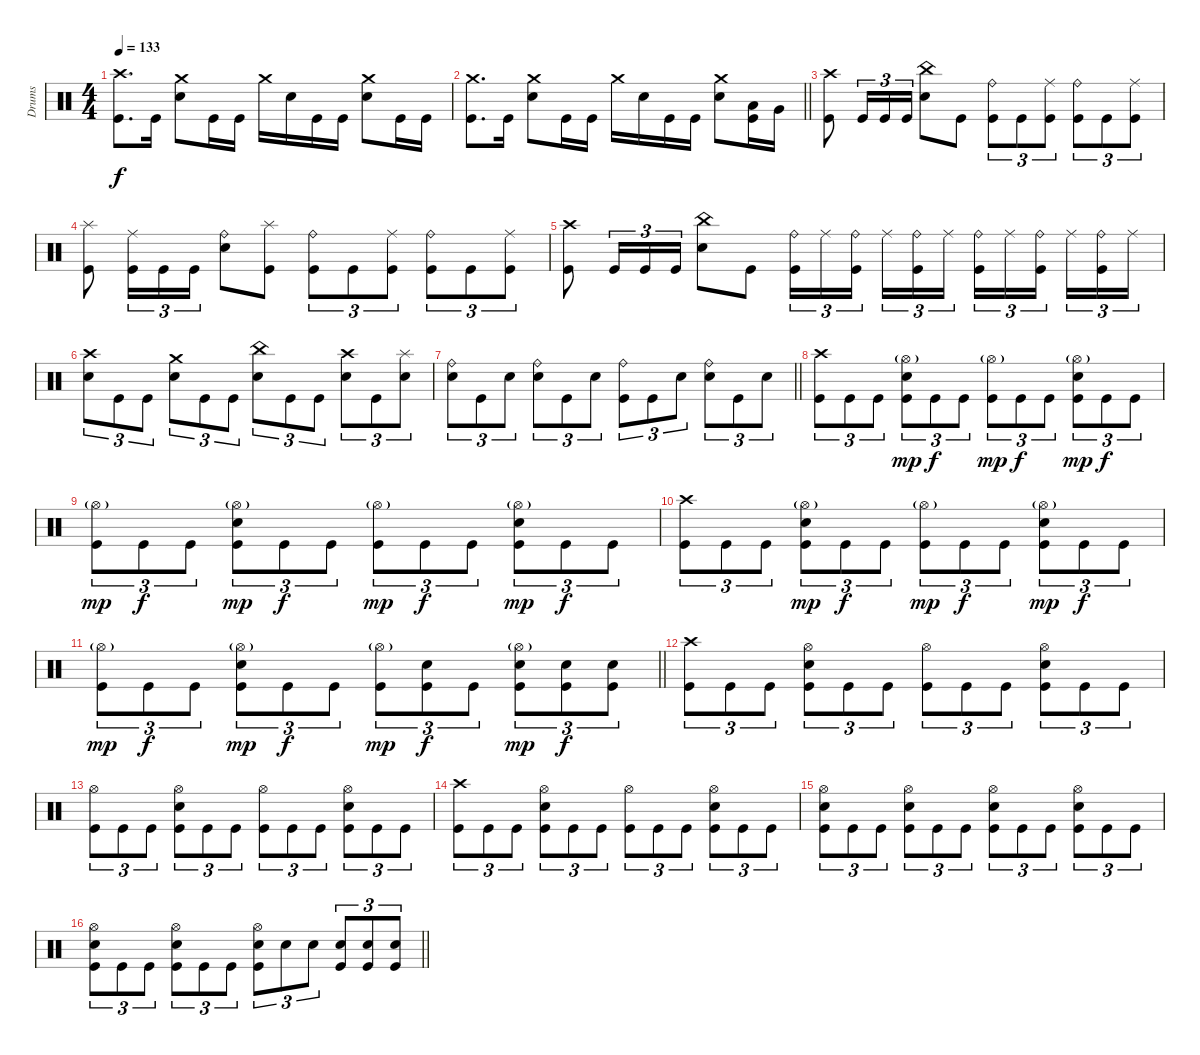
\track ("Drums" "Drums") {instrument percussion}
\staff
\articulation defaults
\ts (4 4)
\tempo 133
\clef neutral
\ks c
("Crash high (hit)" "Kick (hit)").8{d dy f} "Kick (hit)".16 ("Crash medium (hit)" "Electric Snare (hit)").8 "Kick (hit)".16 "Kick (hit)".16 "Crash medium (hit)".16 "Electric Snare (hit)".16 "Kick (hit)".16 "Kick (hit)".16 ("Crash medium (hit)" "Electric Snare (hit)").8 "Kick (hit)".16 "Kick (hit)".16 |
\barLineRight lightlight
("Crash medium (hit)" "Kick (hit)").8{d} "Kick (hit)".16 ("Crash medium (hit)" "Electric Snare (hit)").8 "Kick (hit)".16 "Kick (hit)".16 "Crash medium (hit)".16 "Electric Snare (hit)".16 "Kick (hit)".16 "Kick (hit)".16 ("Crash medium (hit)" "Electric Snare (hit)").8 ("Low Tom (hit)" "Kick (hit)").16 "Very Low Tom (hit)".16 |
\section ("" "")
("Crash high (hit)" "Kick (hit)").8 "Kick (hit)".16{tu (3 2)} "Kick (hit)".16{tu (3 2)} "Kick (hit)".16{tu (3 2)} ("China (hit)" "Electric Snare (hit)").8 "Kick (hit)".8 ("Ride (bell)" "Kick (hit)").8{tu (3 2)} "Kick (hit)".8{tu (3 2)} ("Ride (middle)" "Kick (hit)").8{tu (3 2)} ("Ride (bell)" "Kick (hit)").8{tu (3 2)} "Kick (hit)".8{tu (3 2)} ("Ride (middle)" "Kick (hit)").8{tu (3 2)} |
("Splash (hit)" "Kick (hit)").8 ("Ride (middle)" "Kick (hit)").16{tu (3 2)} "Kick (hit)".16{tu (3 2)} "Kick (hit)".16{tu (3 2)} ("Ride (bell)" "Electric Snare (hit)").8 ("Splash (hit)" "Kick (hit)").8 ("Ride (bell)" "Kick (hit)").8{tu (3 2)} "Kick (hit)".8{tu (3 2)} ("Ride (middle)" "Kick (hit)").8{tu (3 2)} ("Ride (bell)" "Kick (hit)").8{tu (3 2)} "Kick (hit)".8{tu (3 2)} ("Ride (middle)" "Kick (hit)").8{tu (3 2)} |
("Crash high (hit)" "Kick (hit)").8 "Kick (hit)".16{tu (3 2)} "Kick (hit)".16{tu (3 2)} "Kick (hit)".16{tu (3 2)} ("China (hit)" "Electric Snare (hit)").8 "Kick (hit)".8 ("Ride (bell)" "Kick (hit)").16{tu (3 2)} "Ride (middle)".16{tu (3 2)} ("Ride (bell)" "Kick (hit)").16{tu (3 2) beam splitsecondary} "Ride (middle)".16{tu (3 2)} ("Ride (bell)" "Kick (hit)").16{tu (3 2)} "Ride (middle)".16{tu (3 2)} ("Ride (bell)" "Kick (hit)").16{tu (3 2)} "Ride (middle)".16{tu (3 2)} ("Ride (bell)" "Kick (hit)").16{tu (3 2) beam splitsecondary} "Ride (middle)".16{tu (3 2)} ("Ride (bell)" "Kick (hit)").16{tu (3 2)} "Ride (middle)".16{tu (3 2)} |
("Crash high (hit)" "Electric Snare (hit)").8{tu (3 2)} "Kick (hit)".8{tu (3 2)} "Kick (hit)".8{tu (3 2)} ("Crash medium (hit)" "Electric Snare (hit)").8{tu (3 2)} "Kick (hit)".8{tu (3 2)} "Kick (hit)".8{tu (3 2)} ("China (hit)" "Electric Snare (hit)").8{tu (3 2)} "Kick (hit)".8{tu (3 2)} "Kick (hit)".8{tu (3 2)} ("Crash high (hit)" "Electric Snare (hit)").8{tu (3 2)} "Kick (hit)".8{tu (3 2)} ("Splash (hit)" "Electric Snare (hit)").8{tu (3 2)} |
\barLineRight lightlight
("Ride (bell)" "Electric Snare (hit)").8{tu (3 2)} "Kick (hit)".8{tu (3 2)} "Electric Snare (hit)".8{tu (3 2)} ("Ride (bell)" "Electric Snare (hit)").8{tu (3 2)} "Kick (hit)".8{tu (3 2)} "Electric Snare (hit)".8{tu (3 2)} ("Ride (bell)" "Kick (hit)").8{tu (3 2)} "Kick (hit)".8{tu (3 2)} "Electric Snare (hit)".8{tu (3 2)} ("Ride (bell)" "Electric Snare (hit)").8{tu (3 2)} "Kick (hit)".8{tu (3 2)} "Electric Snare (hit)".8{tu (3 2)} |
\section ("" "")
("Crash high (hit)" "Kick (hit)").8{tu (3 2)} "Kick (hit)".8{tu (3 2)} "Kick (hit)".8{tu (3 2)} ("Hi-Hat (open)"{g} "Electric Snare (hit)" "Kick (hit)").8{tu (3 2) dy mp} "Kick (hit)".8{tu (3 2) dy f} "Kick (hit)".8{tu (3 2)} ("Hi-Hat (open)"{g} "Kick (hit)").8{tu (3 2) dy mp} "Kick (hit)".8{tu (3 2) dy f} "Kick (hit)".8{tu (3 2)} ("Hi-Hat (open)"{g} "Electric Snare (hit)" "Kick (hit)").8{tu (3 2) dy mp} "Kick (hit)".8{tu (3 2) dy f} "Kick (hit)".8{tu (3 2)} |
("Hi-Hat (open)"{g} "Kick (hit)").8{tu (3 2) dy mp} "Kick (hit)".8{tu (3 2) dy f} "Kick (hit)".8{tu (3 2)} ("Hi-Hat (open)"{g} "Electric Snare (hit)" "Kick (hit)").8{tu (3 2) dy mp} "Kick (hit)".8{tu (3 2) dy f} "Kick (hit)".8{tu (3 2)} ("Hi-Hat (open)"{g} "Kick (hit)").8{tu (3 2) dy mp} "Kick (hit)".8{tu (3 2) dy f} "Kick (hit)".8{tu (3 2)} ("Hi-Hat (open)"{g} "Electric Snare (hit)" "Kick (hit)").8{tu (3 2) dy mp} "Kick (hit)".8{tu (3 2) dy f} "Kick (hit)".8{tu (3 2)} |
("Crash high (hit)" "Kick (hit)").8{tu (3 2)} "Kick (hit)".8{tu (3 2)} "Kick (hit)".8{tu (3 2)} ("Hi-Hat (open)"{g} "Electric Snare (hit)" "Kick (hit)").8{tu (3 2) dy mp} "Kick (hit)".8{tu (3 2) dy f} "Kick (hit)".8{tu (3 2)} ("Hi-Hat (open)"{g} "Kick (hit)").8{tu (3 2) dy mp} "Kick (hit)".8{tu (3 2) dy f} "Kick (hit)".8{tu (3 2)} ("Hi-Hat (open)"{g} "Electric Snare (hit)" "Kick (hit)").8{tu (3 2) dy mp} "Kick (hit)".8{tu (3 2) dy f} "Kick (hit)".8{tu (3 2)} |
\barLineRight lightlight
("Hi-Hat (open)"{g} "Kick (hit)").8{tu (3 2) dy mp} "Kick (hit)".8{tu (3 2) dy f} "Kick (hit)".8{tu (3 2)} ("Hi-Hat (open)"{g} "Electric Snare (hit)" "Kick (hit)").8{tu (3 2) dy mp} "Kick (hit)".8{tu (3 2) dy f} "Kick (hit)".8{tu (3 2)} ("Hi-Hat (open)"{g} "Kick (hit)").8{tu (3 2) dy mp} ("Electric Snare (hit)" "Kick (hit)").8{tu (3 2) dy f} "Kick (hit)".8{tu (3 2)} ("Hi-Hat (open)"{g} "Electric Snare (hit)" "Kick (hit)").8{tu (3 2) dy mp} ("Electric Snare (hit)" "Kick (hit)").8{tu (3 2) dy f} ("Electric Snare (hit)" "Kick (hit)").8{tu (3 2)} |
("Crash high (hit)" "Kick (hit)").8{tu (3 2)} "Kick (hit)".8{tu (3 2)} "Kick (hit)".8{tu (3 2)} ("Hi-Hat (open)" "Electric Snare (hit)" "Kick (hit)").8{tu (3 2)} "Kick (hit)".8{tu (3 2)} "Kick (hit)".8{tu (3 2)} ("Hi-Hat (open)" "Kick (hit)").8{tu (3 2)} "Kick (hit)".8{tu (3 2)} "Kick (hit)".8{tu (3 2)} ("Hi-Hat (open)" "Electric Snare (hit)" "Kick (hit)").8{tu (3 2)} "Kick (hit)".8{tu (3 2)} "Kick (hit)".8{tu (3 2)} |
("Hi-Hat (open)" "Kick (hit)").8{tu (3 2)} "Kick (hit)".8{tu (3 2)} "Kick (hit)".8{tu (3 2)} ("Hi-Hat (open)" "Electric Snare (hit)" "Kick (hit)").8{tu (3 2)} "Kick (hit)".8{tu (3 2)} "Kick (hit)".8{tu (3 2)} ("Hi-Hat (open)" "Kick (hit)").8{tu (3 2)} "Kick (hit)".8{tu (3 2)} "Kick (hit)".8{tu (3 2)} ("Hi-Hat (open)" "Electric Snare (hit)" "Kick (hit)").8{tu (3 2)} "Kick (hit)".8{tu (3 2)} "Kick (hit)".8{tu (3 2)} |
("Crash high (hit)" "Kick (hit)").8{tu (3 2)} "Kick (hit)".8{tu (3 2)} "Kick (hit)".8{tu (3 2)} ("Hi-Hat (open)" "Electric Snare (hit)" "Kick (hit)").8{tu (3 2)} "Kick (hit)".8{tu (3 2)} "Kick (hit)".8{tu (3 2)} ("Hi-Hat (open)" "Kick (hit)").8{tu (3 2)} "Kick (hit)".8{tu (3 2)} "Kick (hit)".8{tu (3 2)} ("Hi-Hat (open)" "Electric Snare (hit)" "Kick (hit)").8{tu (3 2)} "Kick (hit)".8{tu (3 2)} "Kick (hit)".8{tu (3 2)} |
("Hi-Hat (open)" "Electric Snare (hit)" "Kick (hit)").8{tu (3 2)} "Kick (hit)".8{tu (3 2)} "Kick (hit)".8{tu (3 2)} ("Hi-Hat (open)" "Electric Snare (hit)" "Kick (hit)").8{tu (3 2)} "Kick (hit)".8{tu (3 2)} "Kick (hit)".8{tu (3 2)} ("Hi-Hat (open)" "Electric Snare (hit)" "Kick (hit)").8{tu (3 2)} "Kick (hit)".8{tu (3 2)} "Kick (hit)".8{tu (3 2)} ("Hi-Hat (open)" "Electric Snare (hit)" "Kick (hit)").8{tu (3 2)} "Kick (hit)".8{tu (3 2)} "Kick (hit)".8{tu (3 2)} |
\barLineRight lightlight
("Hi-Hat (open)" "Electric Snare (hit)" "Kick (hit)").8{tu (3 2)} "Kick (hit)".8{tu (3 2)} "Kick (hit)".8{tu (3 2)} ("Hi-Hat (open)" "Electric Snare (hit)" "Kick (hit)").8{tu (3 2)} "Kick (hit)".8{tu (3 2)} "Kick (hit)".8{tu (3 2)} ("Hi-Hat (open)" "Electric Snare (hit)" "Kick (hit)").8{tu (3 2) volume 8} "Electric Snare (hit)".8{tu (3 2) volume 14} "Electric Snare (hit)".8{tu (3 2)} ("Electric Snare (hit)" "Kick (hit)").8{tu (3 2)} ("Electric Snare (hit)" "Kick (hit)").8{tu (3 2)} ("Electric Snare (hit)" "Kick (hit)").8{tu (3 2)}
